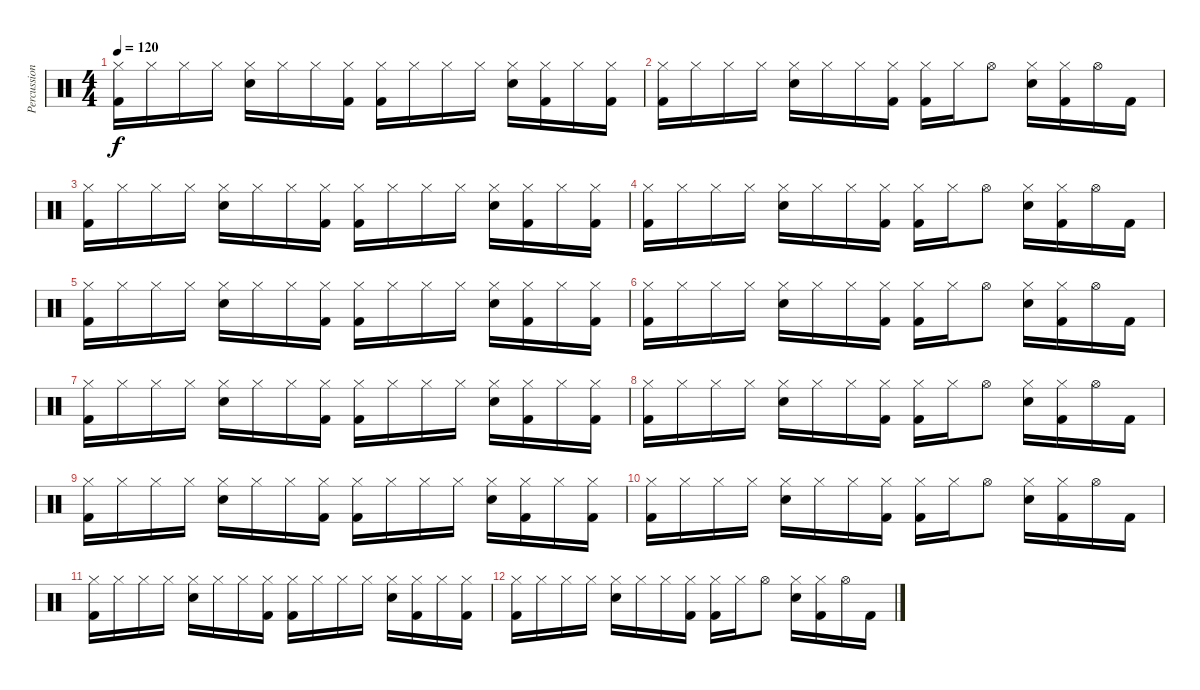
\track ("Percussion" "Percussion") {instrument percussion}
\staff {score}
\articulation defaults
\ts (4 4)
\tempo 120
\clef neutral
\ks c
("Hi-Hat (closed)" "Kick (hit) 2").16{dy f} "Hi-Hat (closed)".16 "Hi-Hat (closed)".16 "Hi-Hat (closed)".16 ("Hi-Hat (closed)" "Snare (hit) 2").16 "Hi-Hat (closed)".16 "Hi-Hat (closed)".16 ("Hi-Hat (closed)" "Kick (hit) 2").16 ("Hi-Hat (closed)" "Kick (hit) 2").16 "Hi-Hat (closed)".16 "Hi-Hat (closed)".16 "Hi-Hat (closed)".16 ("Hi-Hat (closed)" "Snare (hit) 2").16 ("Hi-Hat (closed)" "Kick (hit) 2").16 "Hi-Hat (closed)".16 ("Hi-Hat (closed)" "Kick (hit) 2").16 |
("Hi-Hat (closed)" "Kick (hit) 2").16 "Hi-Hat (closed)".16 "Hi-Hat (closed)".16 "Hi-Hat (closed)".16 ("Hi-Hat (closed)" "Snare (hit) 2").16 "Hi-Hat (closed)".16 "Hi-Hat (closed)".16 ("Hi-Hat (closed)" "Kick (hit) 2").16 ("Hi-Hat (closed)" "Kick (hit) 2").16 "Hi-Hat (closed)".16 "Hi-Hat (open)".8 ("Hi-Hat (closed)" "Snare (hit) 2").16 ("Hi-Hat (closed)" "Kick (hit) 2").16 "Hi-Hat (open)".16 "Kick (hit) 2".16 |
("Hi-Hat (closed)" "Kick (hit) 2").16 "Hi-Hat (closed)".16 "Hi-Hat (closed)".16 "Hi-Hat (closed)".16 ("Hi-Hat (closed)" "Snare (hit) 2").16 "Hi-Hat (closed)".16 "Hi-Hat (closed)".16 ("Hi-Hat (closed)" "Kick (hit) 2").16 ("Hi-Hat (closed)" "Kick (hit) 2").16 "Hi-Hat (closed)".16 "Hi-Hat (closed)".16 "Hi-Hat (closed)".16 ("Hi-Hat (closed)" "Snare (hit) 2").16 ("Hi-Hat (closed)" "Kick (hit) 2").16 "Hi-Hat (closed)".16 ("Hi-Hat (closed)" "Kick (hit) 2").16 |
("Hi-Hat (closed)" "Kick (hit) 2").16 "Hi-Hat (closed)".16 "Hi-Hat (closed)".16 "Hi-Hat (closed)".16 ("Hi-Hat (closed)" "Snare (hit) 2").16 "Hi-Hat (closed)".16 "Hi-Hat (closed)".16 ("Hi-Hat (closed)" "Kick (hit) 2").16 ("Hi-Hat (closed)" "Kick (hit) 2").16 "Hi-Hat (closed)".16 "Hi-Hat (open)".8 ("Hi-Hat (closed)" "Snare (hit) 2").16 ("Hi-Hat (closed)" "Kick (hit) 2").16 "Hi-Hat (open)".16 "Kick (hit) 2".16 |
("Hi-Hat (closed)" "Kick (hit) 2").16 "Hi-Hat (closed)".16 "Hi-Hat (closed)".16 "Hi-Hat (closed)".16 ("Hi-Hat (closed)" "Snare (hit) 2").16 "Hi-Hat (closed)".16 "Hi-Hat (closed)".16 ("Hi-Hat (closed)" "Kick (hit) 2").16 ("Hi-Hat (closed)" "Kick (hit) 2").16 "Hi-Hat (closed)".16 "Hi-Hat (closed)".16 "Hi-Hat (closed)".16 ("Hi-Hat (closed)" "Snare (hit) 2").16 ("Hi-Hat (closed)" "Kick (hit) 2").16 "Hi-Hat (closed)".16 ("Hi-Hat (closed)" "Kick (hit) 2").16 |
("Hi-Hat (closed)" "Kick (hit) 2").16 "Hi-Hat (closed)".16 "Hi-Hat (closed)".16 "Hi-Hat (closed)".16 ("Hi-Hat (closed)" "Snare (hit) 2").16 "Hi-Hat (closed)".16 "Hi-Hat (closed)".16 ("Hi-Hat (closed)" "Kick (hit) 2").16 ("Hi-Hat (closed)" "Kick (hit) 2").16 "Hi-Hat (closed)".16 "Hi-Hat (open)".8 ("Hi-Hat (closed)" "Snare (hit) 2").16 ("Hi-Hat (closed)" "Kick (hit) 2").16 "Hi-Hat (open)".16 "Kick (hit) 2".16 |
("Hi-Hat (closed)" "Kick (hit) 2").16 "Hi-Hat (closed)".16 "Hi-Hat (closed)".16 "Hi-Hat (closed)".16 ("Hi-Hat (closed)" "Snare (hit) 2").16 "Hi-Hat (closed)".16 "Hi-Hat (closed)".16 ("Hi-Hat (closed)" "Kick (hit) 2").16 ("Hi-Hat (closed)" "Kick (hit) 2").16 "Hi-Hat (closed)".16 "Hi-Hat (closed)".16 "Hi-Hat (closed)".16 ("Hi-Hat (closed)" "Snare (hit) 2").16 ("Hi-Hat (closed)" "Kick (hit) 2").16 "Hi-Hat (closed)".16 ("Hi-Hat (closed)" "Kick (hit) 2").16 |
("Hi-Hat (closed)" "Kick (hit) 2").16 "Hi-Hat (closed)".16 "Hi-Hat (closed)".16 "Hi-Hat (closed)".16 ("Hi-Hat (closed)" "Snare (hit) 2").16 "Hi-Hat (closed)".16 "Hi-Hat (closed)".16 ("Hi-Hat (closed)" "Kick (hit) 2").16 ("Hi-Hat (closed)" "Kick (hit) 2").16 "Hi-Hat (closed)".16 "Hi-Hat (open)".8 ("Hi-Hat (closed)" "Snare (hit) 2").16 ("Hi-Hat (closed)" "Kick (hit) 2").16 "Hi-Hat (open)".16 "Kick (hit) 2".16 |
("Hi-Hat (closed)" "Kick (hit) 2").16 "Hi-Hat (closed)".16 "Hi-Hat (closed)".16 "Hi-Hat (closed)".16 ("Hi-Hat (closed)" "Snare (hit) 2").16 "Hi-Hat (closed)".16 "Hi-Hat (closed)".16 ("Hi-Hat (closed)" "Kick (hit) 2").16 ("Hi-Hat (closed)" "Kick (hit) 2").16 "Hi-Hat (closed)".16 "Hi-Hat (closed)".16 "Hi-Hat (closed)".16 ("Hi-Hat (closed)" "Snare (hit) 2").16 ("Hi-Hat (closed)" "Kick (hit) 2").16 "Hi-Hat (closed)".16 ("Hi-Hat (closed)" "Kick (hit) 2").16 |
("Hi-Hat (closed)" "Kick (hit) 2").16 "Hi-Hat (closed)".16 "Hi-Hat (closed)".16 "Hi-Hat (closed)".16 ("Hi-Hat (closed)" "Snare (hit) 2").16 "Hi-Hat (closed)".16 "Hi-Hat (closed)".16 ("Hi-Hat (closed)" "Kick (hit) 2").16 ("Hi-Hat (closed)" "Kick (hit) 2").16 "Hi-Hat (closed)".16 "Hi-Hat (open)".8 ("Hi-Hat (closed)" "Snare (hit) 2").16 ("Hi-Hat (closed)" "Kick (hit) 2").16 "Hi-Hat (open)".16 "Kick (hit) 2".16 |
("Hi-Hat (closed)" "Kick (hit) 2").16{volume 0} "Hi-Hat (closed)".16 "Hi-Hat (closed)".16 "Hi-Hat (closed)".16 ("Hi-Hat (closed)" "Snare (hit) 2").16 "Hi-Hat (closed)".16 "Hi-Hat (closed)".16 ("Hi-Hat (closed)" "Kick (hit) 2").16 ("Hi-Hat (closed)" "Kick (hit) 2").16 "Hi-Hat (closed)".16 "Hi-Hat (closed)".16 "Hi-Hat (closed)".16 ("Hi-Hat (closed)" "Snare (hit) 2").16 ("Hi-Hat (closed)" "Kick (hit) 2").16 "Hi-Hat (closed)".16 ("Hi-Hat (closed)" "Kick (hit) 2").16 |
("Hi-Hat (closed)" "Kick (hit) 2").16 "Hi-Hat (closed)".16 "Hi-Hat (closed)".16 "Hi-Hat (closed)".16 ("Hi-Hat (closed)" "Snare (hit) 2").16 "Hi-Hat (closed)".16 "Hi-Hat (closed)".16 ("Hi-Hat (closed)" "Kick (hit) 2").16 ("Hi-Hat (closed)" "Kick (hit) 2").16 "Hi-Hat (closed)".16 "Hi-Hat (open)".8 ("Hi-Hat (closed)" "Snare (hit) 2").16 ("Hi-Hat (closed)" "Kick (hit) 2").16 "Hi-Hat (open)".16 "Kick (hit) 2".16
